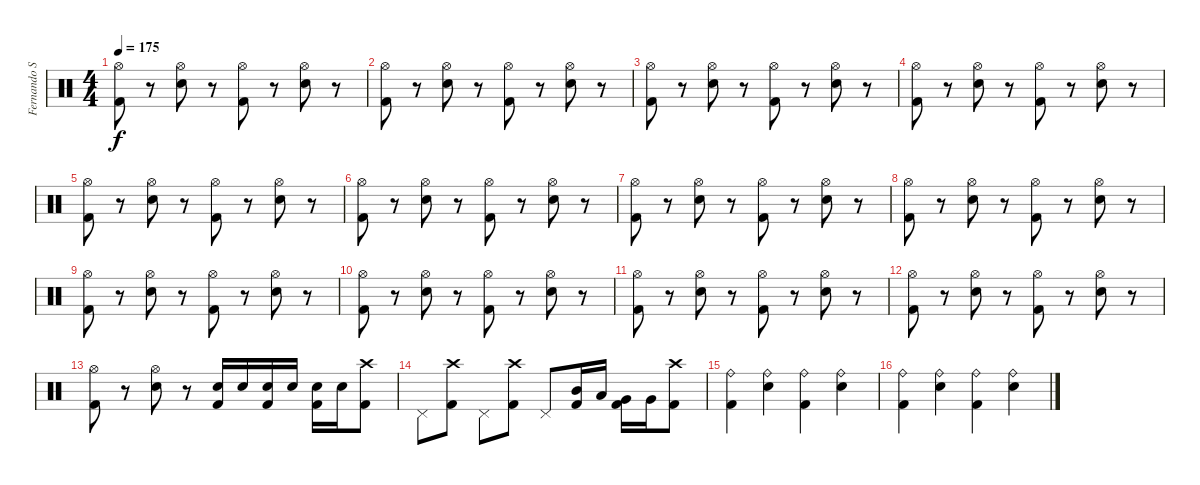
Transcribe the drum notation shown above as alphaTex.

\track ("Fernando Scarcella" "Fernando S") {instrument percussion}
\staff {score}
\articulation defaults
\ts (4 4)
\tempo 175
\clef neutral
\ks c
("Hi-Hat (open)" "Kick (hit) 2").8{dy f} r.8 ("Hi-Hat (open)" "Snare (hit) 2").8 r.8 ("Hi-Hat (open)" "Kick (hit) 2").8 r.8 ("Hi-Hat (open)" "Snare (hit) 2").8 r.8 |
("Hi-Hat (open)" "Kick (hit) 2").8 r.8 ("Hi-Hat (open)" "Snare (hit) 2").8 r.8 ("Hi-Hat (open)" "Kick (hit) 2").8 r.8 ("Hi-Hat (open)" "Snare (hit) 2").8 r.8 |
("Hi-Hat (open)" "Kick (hit) 2").8 r.8 ("Hi-Hat (open)" "Snare (hit) 2").8 r.8 ("Hi-Hat (open)" "Kick (hit) 2").8 r.8 ("Hi-Hat (open)" "Snare (hit) 2").8 r.8 |
("Hi-Hat (open)" "Kick (hit) 2").8 r.8 ("Hi-Hat (open)" "Snare (hit) 2").8 r.8 ("Hi-Hat (open)" "Kick (hit) 2").8 r.8 ("Hi-Hat (open)" "Snare (hit) 2").8 r.8 |
("Hi-Hat (open)" "Kick (hit) 2").8 r.8 ("Hi-Hat (open)" "Snare (hit) 2").8 r.8 ("Hi-Hat (open)" "Kick (hit) 2").8 r.8 ("Hi-Hat (open)" "Snare (hit) 2").8 r.8 |
("Hi-Hat (open)" "Kick (hit) 2").8 r.8 ("Hi-Hat (open)" "Snare (hit) 2").8 r.8 ("Hi-Hat (open)" "Kick (hit) 2").8 r.8 ("Hi-Hat (open)" "Snare (hit) 2").8 r.8 |
("Hi-Hat (open)" "Kick (hit) 2").8 r.8 ("Hi-Hat (open)" "Snare (hit) 2").8 r.8 ("Hi-Hat (open)" "Kick (hit) 2").8 r.8 ("Hi-Hat (open)" "Snare (hit) 2").8 r.8 |
("Hi-Hat (open)" "Kick (hit) 2").8 r.8 ("Hi-Hat (open)" "Snare (hit) 2").8 r.8 ("Hi-Hat (open)" "Kick (hit) 2").8 r.8 ("Hi-Hat (open)" "Snare (hit) 2").8 r.8 |
("Hi-Hat (open)" "Kick (hit) 2").8 r.8 ("Hi-Hat (open)" "Snare (hit) 2").8 r.8 ("Hi-Hat (open)" "Kick (hit) 2").8 r.8 ("Hi-Hat (open)" "Snare (hit) 2").8 r.8 |
("Hi-Hat (open)" "Kick (hit) 2").8 r.8 ("Hi-Hat (open)" "Snare (hit) 2").8 r.8 ("Hi-Hat (open)" "Kick (hit) 2").8 r.8 ("Hi-Hat (open)" "Snare (hit) 2").8 r.8 |
("Hi-Hat (open)" "Kick (hit) 2").8 r.8 ("Hi-Hat (open)" "Snare (hit) 2").8 r.8 ("Hi-Hat (open)" "Kick (hit) 2").8 r.8 ("Hi-Hat (open)" "Snare (hit) 2").8 r.8 |
("Hi-Hat (open)" "Kick (hit) 2").8 r.8 ("Hi-Hat (open)" "Snare (hit) 2").8 r.8 ("Hi-Hat (open)" "Kick (hit) 2").8 r.8 ("Hi-Hat (open)" "Snare (hit) 2").8 r.8 |
("Hi-Hat (open)" "Kick (hit) 2").8 r.8 ("Hi-Hat (open)" "Snare (hit) 2").8 r.8 ("Snare (hit) 2" "Kick (hit) 2").16 "Snare (hit) 2".16 ("Snare (hit) 2" "Kick (hit) 2").16 "Snare (hit) 2".16 ("Snare (hit) 2" "Kick (hit) 2").16 "Snare (hit) 2".16 ("Crash high (hit)" "Kick (hit) 2").8 |
"Pedal Hi-Hat (hit)".8 ("Crash high (hit)" "Kick (hit) 2").8 "Pedal Hi-Hat (hit)".8 ("Crash high (hit)" "Kick (hit) 2").8 "Pedal Hi-Hat (hit)".8 ("Mid Tom (hit)" "Kick (hit) 2").16 "Low Tom (hit)".16 ("Very Low Tom (hit)" "Kick (hit) 2").16 "Very Low Tom (hit)".16 ("Crash high (hit)" "Kick (hit) 2").8 |
("Kick (hit) 2" "Ride (bell)").4 ("Snare (hit) 2" "Ride (bell)").4 ("Kick (hit) 2" "Ride (bell)").4 ("Snare (hit) 2" "Ride (bell)").4 |
("Kick (hit) 2" "Ride (bell)").4 ("Snare (hit) 2" "Ride (bell)").4 ("Kick (hit) 2" "Ride (bell)").4 ("Snare (hit) 2" "Ride (bell)").4
